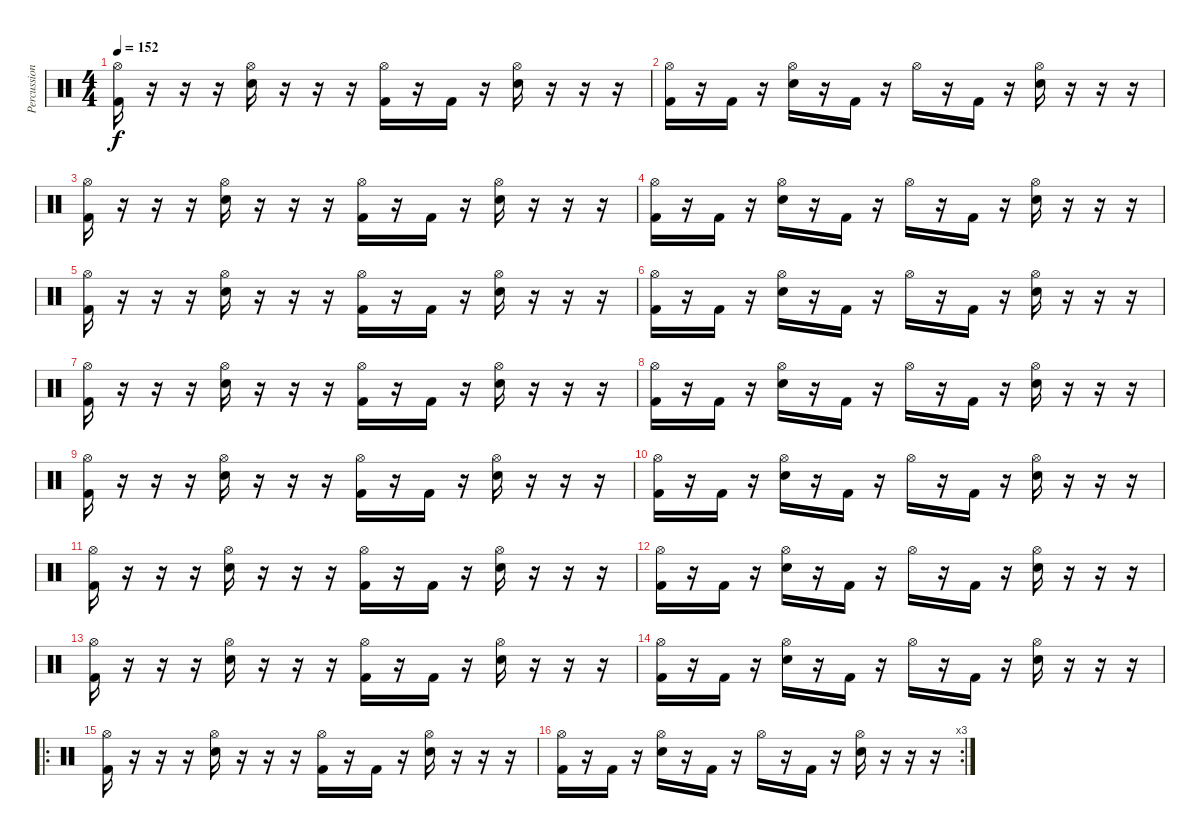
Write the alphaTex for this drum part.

\track ("Percussions" "Percussion") {instrument percussion}
\staff {score}
\articulation defaults
\ts (4 4)
\tempo 152
\clef neutral
\ks c
("Kick (hit) 2" "Hi-Hat (open)").16{dy f} r.16 r.16 r.16 ("Electric Snare (hit)" "Hi-Hat (open)").16 r.16 r.16 r.16 ("Kick (hit) 2" "Hi-Hat (open)").16 r.16 "Kick (hit) 2".16 r.16 ("Electric Snare (hit)" "Hi-Hat (open)").16 r.16 r.16 r.16 |
("Kick (hit) 2" "Hi-Hat (open)").16 r.16 "Kick (hit) 2".16 r.16 ("Electric Snare (hit)" "Hi-Hat (open)").16 r.16 "Kick (hit) 2".16 r.16 "Hi-Hat (open)".16 r.16 "Kick (hit) 2".16 r.16 ("Electric Snare (hit)" "Hi-Hat (open)").16 r.16 r.16 r.16 |
("Kick (hit) 2" "Hi-Hat (open)").16 r.16 r.16 r.16 ("Electric Snare (hit)" "Hi-Hat (open)").16 r.16 r.16 r.16 ("Kick (hit) 2" "Hi-Hat (open)").16 r.16 "Kick (hit) 2".16 r.16 ("Electric Snare (hit)" "Hi-Hat (open)").16 r.16 r.16 r.16 |
("Kick (hit) 2" "Hi-Hat (open)").16 r.16 "Kick (hit) 2".16 r.16 ("Electric Snare (hit)" "Hi-Hat (open)").16 r.16 "Kick (hit) 2".16 r.16 "Hi-Hat (open)".16 r.16 "Kick (hit) 2".16 r.16 ("Electric Snare (hit)" "Hi-Hat (open)").16 r.16 r.16 r.16 |
("Kick (hit) 2" "Hi-Hat (open)").16 r.16 r.16 r.16 ("Electric Snare (hit)" "Hi-Hat (open)").16 r.16 r.16 r.16 ("Kick (hit) 2" "Hi-Hat (open)").16 r.16 "Kick (hit) 2".16 r.16 ("Electric Snare (hit)" "Hi-Hat (open)").16 r.16 r.16 r.16 |
("Kick (hit) 2" "Hi-Hat (open)").16 r.16 "Kick (hit) 2".16 r.16 ("Electric Snare (hit)" "Hi-Hat (open)").16 r.16 "Kick (hit) 2".16 r.16 "Hi-Hat (open)".16 r.16 "Kick (hit) 2".16 r.16 ("Electric Snare (hit)" "Hi-Hat (open)").16 r.16 r.16 r.16 |
("Kick (hit) 2" "Hi-Hat (open)").16 r.16 r.16 r.16 ("Electric Snare (hit)" "Hi-Hat (open)").16 r.16 r.16 r.16 ("Kick (hit) 2" "Hi-Hat (open)").16 r.16 "Kick (hit) 2".16 r.16 ("Electric Snare (hit)" "Hi-Hat (open)").16 r.16 r.16 r.16 |
("Kick (hit) 2" "Hi-Hat (open)").16 r.16 "Kick (hit) 2".16 r.16 ("Electric Snare (hit)" "Hi-Hat (open)").16 r.16 "Kick (hit) 2".16 r.16 "Hi-Hat (open)".16 r.16 "Kick (hit) 2".16 r.16 ("Electric Snare (hit)" "Hi-Hat (open)").16 r.16 r.16 r.16 |
("Kick (hit) 2" "Hi-Hat (open)").16 r.16 r.16 r.16 ("Electric Snare (hit)" "Hi-Hat (open)").16 r.16 r.16 r.16 ("Kick (hit) 2" "Hi-Hat (open)").16 r.16 "Kick (hit) 2".16 r.16 ("Electric Snare (hit)" "Hi-Hat (open)").16 r.16 r.16 r.16 |
("Kick (hit) 2" "Hi-Hat (open)").16 r.16 "Kick (hit) 2".16 r.16 ("Electric Snare (hit)" "Hi-Hat (open)").16 r.16 "Kick (hit) 2".16 r.16 "Hi-Hat (open)".16 r.16 "Kick (hit) 2".16 r.16 ("Electric Snare (hit)" "Hi-Hat (open)").16 r.16 r.16 r.16 |
("Kick (hit) 2" "Hi-Hat (open)").16 r.16 r.16 r.16 ("Electric Snare (hit)" "Hi-Hat (open)").16 r.16 r.16 r.16 ("Kick (hit) 2" "Hi-Hat (open)").16 r.16 "Kick (hit) 2".16 r.16 ("Electric Snare (hit)" "Hi-Hat (open)").16 r.16 r.16 r.16 |
("Kick (hit) 2" "Hi-Hat (open)").16 r.16 "Kick (hit) 2".16 r.16 ("Electric Snare (hit)" "Hi-Hat (open)").16 r.16 "Kick (hit) 2".16 r.16 "Hi-Hat (open)".16 r.16 "Kick (hit) 2".16 r.16 ("Electric Snare (hit)" "Hi-Hat (open)").16 r.16 r.16 r.16 |
("Kick (hit) 2" "Hi-Hat (open)").16 r.16 r.16 r.16 ("Electric Snare (hit)" "Hi-Hat (open)").16 r.16 r.16 r.16 ("Kick (hit) 2" "Hi-Hat (open)").16 r.16 "Kick (hit) 2".16 r.16 ("Electric Snare (hit)" "Hi-Hat (open)").16 r.16 r.16 r.16 |
("Kick (hit) 2" "Hi-Hat (open)").16 r.16 "Kick (hit) 2".16 r.16 ("Electric Snare (hit)" "Hi-Hat (open)").16 r.16 "Kick (hit) 2".16 r.16 "Hi-Hat (open)".16 r.16 "Kick (hit) 2".16 r.16 ("Electric Snare (hit)" "Hi-Hat (open)").16 r.16 r.16 r.16 |
\ro
("Kick (hit) 2" "Hi-Hat (open)").16 r.16 r.16 r.16 ("Electric Snare (hit)" "Hi-Hat (open)").16 r.16 r.16 r.16 ("Kick (hit) 2" "Hi-Hat (open)").16 r.16 "Kick (hit) 2".16 r.16 ("Electric Snare (hit)" "Hi-Hat (open)").16 r.16 r.16 r.16 |
\rc 3
("Kick (hit) 2" "Hi-Hat (open)").16 r.16 "Kick (hit) 2".16 r.16 ("Electric Snare (hit)" "Hi-Hat (open)").16 r.16 "Kick (hit) 2".16 r.16 "Hi-Hat (open)".16 r.16 "Kick (hit) 2".16 r.16 ("Electric Snare (hit)" "Hi-Hat (open)").16 r.16 r.16 r.16
